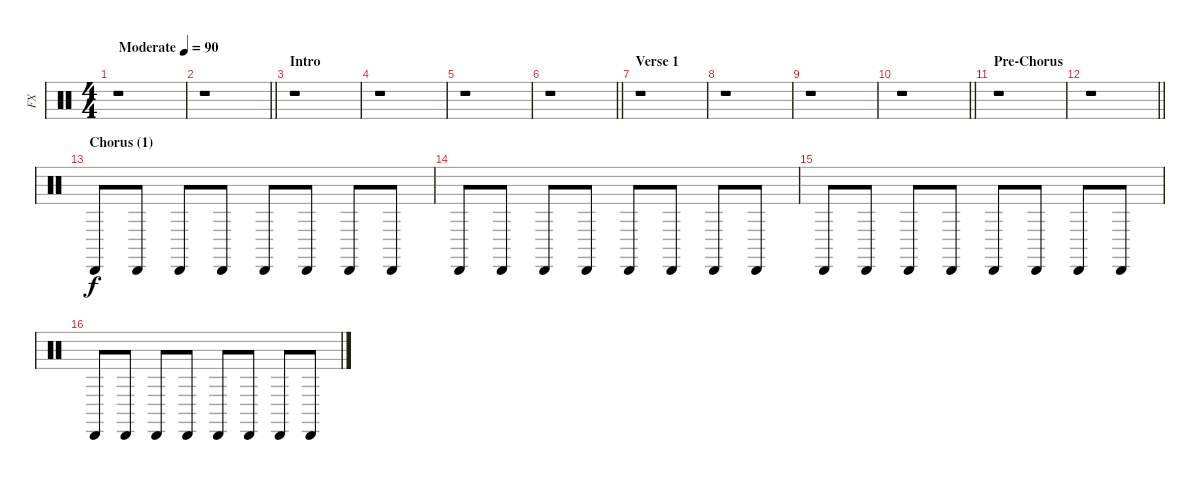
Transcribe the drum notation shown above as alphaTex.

\track ("FX" "FX") {instrument percussion}
\staff {score}
\articulation defaults
\ts (4 4)
\tempo (90 "Moderate")
\clef neutral
\ks c
r.1{dy f} |
\barLineRight lightlight
r.1 |
\section ("" "Intro")
r.1 |
r.1 |
r.1 |
\barLineRight lightlight
r.1 |
\section ("" "Verse 1")
r.1 |
r.1 |
r.1 |
\barLineRight lightlight
r.1 |
\section ("" "Pre-Chorus")
r.1 |
\barLineRight lightlight
r.1 |
\section ("" "Chorus (1)")
"Cabasa (hit)".8 "Cabasa (hit)".8 "Cabasa (hit)".8 "Cabasa (hit)".8 "Cabasa (hit)".8 "Cabasa (hit)".8 "Cabasa (hit)".8 "Cabasa (hit)".8 |
"Cabasa (hit)".8 "Cabasa (hit)".8 "Cabasa (hit)".8 "Cabasa (hit)".8 "Cabasa (hit)".8 "Cabasa (hit)".8 "Cabasa (hit)".8 "Cabasa (hit)".8 |
"Cabasa (hit)".8 "Cabasa (hit)".8 "Cabasa (hit)".8 "Cabasa (hit)".8 "Cabasa (hit)".8 "Cabasa (hit)".8 "Cabasa (hit)".8 "Cabasa (hit)".8 |
"Cabasa (hit)".8 "Cabasa (hit)".8 "Cabasa (hit)".8 "Cabasa (hit)".8 "Cabasa (hit)".8 "Cabasa (hit)".8 "Cabasa (hit)".8 "Cabasa (hit)".8
